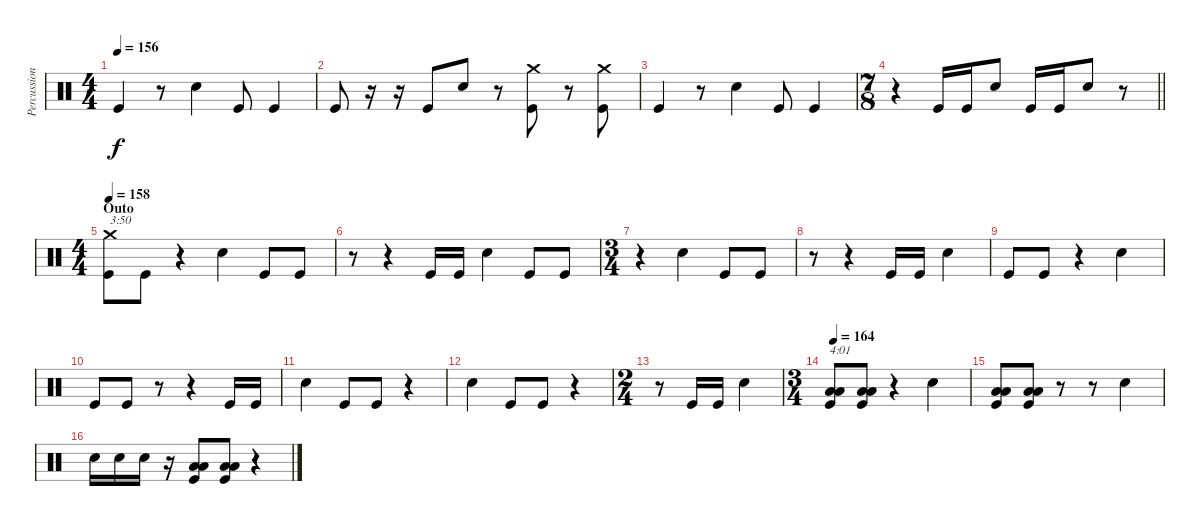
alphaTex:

\track ("Percussion" "Percussion") {instrument percussion}
\staff {score}
\articulation defaults
\ts (4 4)
\tempo 156
\clef neutral
\ks c "Kick (hit)".4{dy f}
r.8 "Electric Snare (hit)".4 "Kick (hit)".8 "Kick (hit)".4 |
"Kick (hit)".8 r.16 r.16 "Kick (hit)".8 "Electric Snare (hit)".8 r.8 ("Kick (hit)" "Crash medium (hit)").8 r.8 ("Kick (hit)" "Crash medium (hit)").8 |
"Kick (hit)".4 r.8 "Electric Snare (hit)".4 "Kick (hit)".8 "Kick (hit)".4 |
\ts (7 8)
\barLineRight lightlight
r.4 "Kick (hit)".16 "Kick (hit)".16 "Electric Snare (hit)".8 "Kick (hit)".16 "Kick (hit)".16 "Electric Snare (hit)".8 r.8 |
\ts (4 4)
\section ("" "Outo")
\tempo 158
("Kick (hit)" "Crash medium (hit)").8{txt "3:50"} "Kick (hit)".8 r.4 "Electric Snare (hit)".4 "Kick (hit)".8 "Kick (hit)".8 |
r.8 r.4 "Kick (hit)".16 "Kick (hit)".16 "Electric Snare (hit)".4 "Kick (hit)".8 "Kick (hit)".8 |
\ts (3 4)
r.4 "Electric Snare (hit)".4 "Kick (hit)".8 "Kick (hit)".8 |
r.8 r.4 "Kick (hit)".16 "Kick (hit)".16 "Electric Snare (hit)".4 |
"Kick (hit)".8 "Kick (hit)".8 r.4 "Electric Snare (hit)".4 |
"Kick (hit)".8 "Kick (hit)".8 r.8 r.4 "Kick (hit)".16 "Kick (hit)".16 |
"Electric Snare (hit)".4 "Kick (hit)".8 "Kick (hit)".8 r.4 |
"Electric Snare (hit)".4 "Kick (hit)".8 "Kick (hit)".8 r.4 |
\ts (2 4)
r.8 "Kick (hit)".16 "Kick (hit)".16 "Electric Snare (hit)".4 |
\ts (3 4)
\tempo 164
("Kick (hit)" "Low Floor Tom (hit)" "Low Floor Tom (hit)").8{txt "4:01"} ("Kick (hit)" "Low Floor Tom (hit)" "Low Floor Tom (hit)").8 r.4 "Electric Snare (hit)".4 |
("Kick (hit)" "Low Floor Tom (hit)" "Low Floor Tom (hit)").8 ("Kick (hit)" "Low Floor Tom (hit)" "Low Floor Tom (hit)").8 r.8 r.8 "Electric Snare (hit)".4 |
"Electric Snare (hit)".16 "Electric Snare (hit)".16 "Electric Snare (hit)".16 r.16 ("Kick (hit)" "Low Floor Tom (hit)" "Low Floor Tom (hit)").8 ("Kick (hit)" "Low Floor Tom (hit)" "Low Floor Tom (hit)").8 r.4
